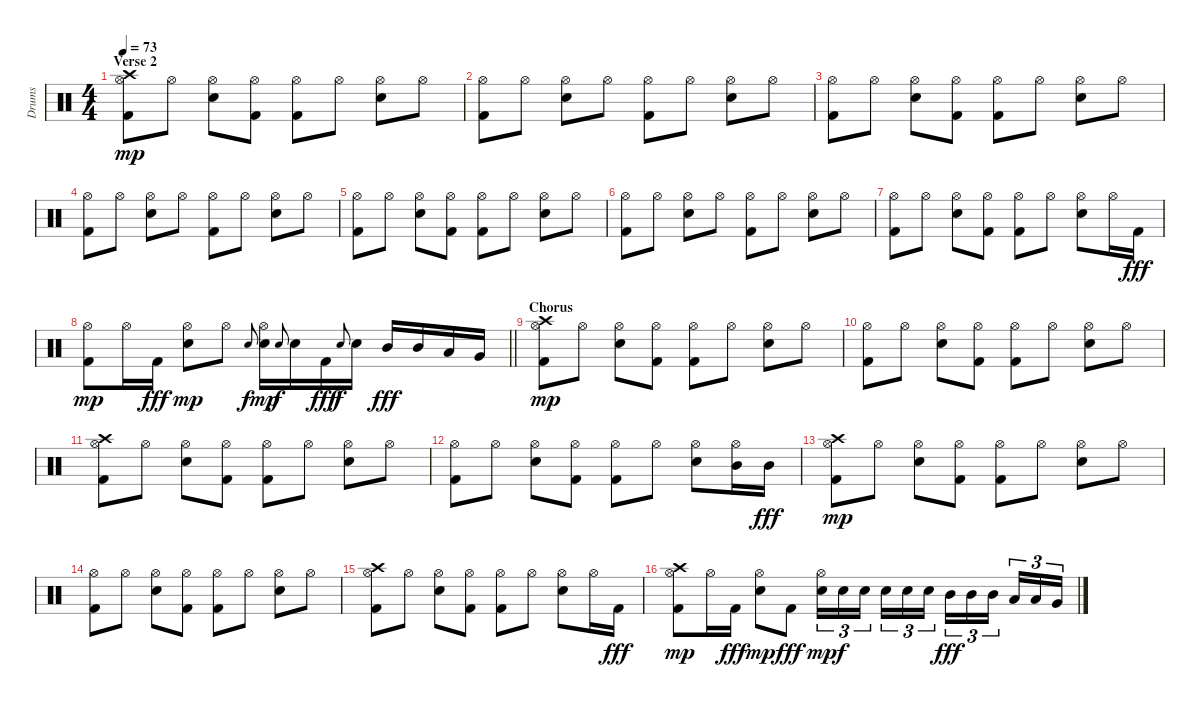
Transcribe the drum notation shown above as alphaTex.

\track ("Drums" "Drums") {instrument percussion}
\staff {score}
\articulation defaults
\ts (4 4)
\section ("" "Verse 2")
\tempo 73
\clef neutral
\ks c
("Kick (hit) 2" "Hi-Hat (open)" "Crash high (hit)").8{dy mp} "Hi-Hat (open)".8 ("Electric Snare (hit)" "Hi-Hat (open)").8 ("Kick (hit) 2" "Hi-Hat (open)").8 ("Kick (hit) 2" "Hi-Hat (open)").8 "Hi-Hat (open)".8 ("Electric Snare (hit)" "Hi-Hat (open)").8 "Hi-Hat (open)".8 |
("Kick (hit) 2" "Hi-Hat (open)").8 "Hi-Hat (open)".8 ("Electric Snare (hit)" "Hi-Hat (open)").8 "Hi-Hat (open)".8 ("Kick (hit) 2" "Hi-Hat (open)").8 "Hi-Hat (open)".8 ("Electric Snare (hit)" "Hi-Hat (open)").8 "Hi-Hat (open)".8 |
("Kick (hit) 2" "Hi-Hat (open)").8 "Hi-Hat (open)".8 ("Electric Snare (hit)" "Hi-Hat (open)").8 ("Kick (hit) 2" "Hi-Hat (open)").8 ("Kick (hit) 2" "Hi-Hat (open)").8 "Hi-Hat (open)".8 ("Electric Snare (hit)" "Hi-Hat (open)").8 "Hi-Hat (open)".8 |
("Kick (hit) 2" "Hi-Hat (open)").8 "Hi-Hat (open)".8 ("Electric Snare (hit)" "Hi-Hat (open)").8 "Hi-Hat (open)".8 ("Kick (hit) 2" "Hi-Hat (open)").8 "Hi-Hat (open)".8 ("Electric Snare (hit)" "Hi-Hat (open)").8 "Hi-Hat (open)".8 |
("Kick (hit) 2" "Hi-Hat (open)").8 "Hi-Hat (open)".8 ("Electric Snare (hit)" "Hi-Hat (open)").8 ("Kick (hit) 2" "Hi-Hat (open)").8 ("Kick (hit) 2" "Hi-Hat (open)").8 "Hi-Hat (open)".8 ("Electric Snare (hit)" "Hi-Hat (open)").8 "Hi-Hat (open)".8 |
("Kick (hit) 2" "Hi-Hat (open)").8 "Hi-Hat (open)".8 ("Electric Snare (hit)" "Hi-Hat (open)").8 "Hi-Hat (open)".8 ("Kick (hit) 2" "Hi-Hat (open)").8 "Hi-Hat (open)".8 ("Electric Snare (hit)" "Hi-Hat (open)").8 "Hi-Hat (open)".8 |
("Kick (hit) 2" "Hi-Hat (open)").8 "Hi-Hat (open)".8 ("Electric Snare (hit)" "Hi-Hat (open)").8 ("Kick (hit) 2" "Hi-Hat (open)").8 ("Kick (hit) 2" "Hi-Hat (open)").8 "Hi-Hat (open)".8 ("Electric Snare (hit)" "Hi-Hat (open)").8 "Hi-Hat (open)".16 "Kick (hit) 2".16{dy fff} |
\barLineRight lightlight
("Kick (hit) 2" "Hi-Hat (open)").8{dy mp} "Hi-Hat (open)".16 "Kick (hit) 2".16{dy fff} ("Electric Snare (hit)" "Hi-Hat (open)").8{dy mp} "Hi-Hat (open)".8 "Electric Snare (hit)".8{gr onbeat dy f} ("Electric Snare (hit)" "Hi-Hat (open)").16{dy mp} "Electric Snare (hit)".8{gr onbeat dy f} "Electric Snare (hit)".16 "Kick (hit) 2".16{dy fff} "Electric Snare (hit)".8{gr onbeat dy f} "Electric Snare (hit)".16 "Mid Tom (hit)".16{dy fff} "Mid Tom (hit)".16 "Low Tom (hit)".16 "Very Low Tom (hit)".16 |
\section ("" "Chorus")
("Kick (hit) 2" "Hi-Hat (open)" "Crash high (hit)").8{dy mp} "Hi-Hat (open)".8 ("Electric Snare (hit)" "Hi-Hat (open)").8 ("Kick (hit) 2" "Hi-Hat (open)").8 ("Kick (hit) 2" "Hi-Hat (open)").8 "Hi-Hat (open)".8 ("Electric Snare (hit)" "Hi-Hat (open)").8 "Hi-Hat (open)".8 |
("Kick (hit) 2" "Hi-Hat (open)").8 "Hi-Hat (open)".8 ("Electric Snare (hit)" "Hi-Hat (open)").8 ("Kick (hit) 2" "Hi-Hat (open)").8 ("Kick (hit) 2" "Hi-Hat (open)").8 "Hi-Hat (open)".8 ("Electric Snare (hit)" "Hi-Hat (open)").8 "Hi-Hat (open)".8 |
("Kick (hit) 2" "Hi-Hat (open)" "Crash high (hit)").8 "Hi-Hat (open)".8 ("Electric Snare (hit)" "Hi-Hat (open)").8 ("Kick (hit) 2" "Hi-Hat (open)").8 ("Kick (hit) 2" "Hi-Hat (open)").8 "Hi-Hat (open)".8 ("Electric Snare (hit)" "Hi-Hat (open)").8 "Hi-Hat (open)".8 |
("Kick (hit) 2" "Hi-Hat (open)").8 "Hi-Hat (open)".8 ("Electric Snare (hit)" "Hi-Hat (open)").8 ("Kick (hit) 2" "Hi-Hat (open)").8 ("Kick (hit) 2" "Hi-Hat (open)").8 "Hi-Hat (open)".8 ("Electric Snare (hit)" "Hi-Hat (open)").8 ("Mid Tom (hit)" "Hi-Hat (open)").16 "Mid Tom (hit)".16{dy fff} |
("Kick (hit) 2" "Hi-Hat (open)" "Crash high (hit)").8{dy mp} "Hi-Hat (open)".8 ("Electric Snare (hit)" "Hi-Hat (open)").8 ("Kick (hit) 2" "Hi-Hat (open)").8 ("Kick (hit) 2" "Hi-Hat (open)").8 "Hi-Hat (open)".8 ("Electric Snare (hit)" "Hi-Hat (open)").8 "Hi-Hat (open)".8 |
("Kick (hit) 2" "Hi-Hat (open)").8 "Hi-Hat (open)".8 ("Electric Snare (hit)" "Hi-Hat (open)").8 ("Kick (hit) 2" "Hi-Hat (open)").8 ("Kick (hit) 2" "Hi-Hat (open)").8 "Hi-Hat (open)".8 ("Electric Snare (hit)" "Hi-Hat (open)").8 "Hi-Hat (open)".8 |
("Kick (hit) 2" "Hi-Hat (open)" "Crash high (hit)").8 "Hi-Hat (open)".8 ("Electric Snare (hit)" "Hi-Hat (open)").8 ("Kick (hit) 2" "Hi-Hat (open)").8 ("Kick (hit) 2" "Hi-Hat (open)").8 "Hi-Hat (open)".8 ("Electric Snare (hit)" "Hi-Hat (open)").8 "Hi-Hat (open)".16 "Kick (hit) 2".16{dy fff} |
("Kick (hit) 2" "Crash high (hit)" "Hi-Hat (open)").8{dy mp} "Hi-Hat (open)".16 "Kick (hit) 2".16{dy fff} ("Electric Snare (hit)" "Hi-Hat (open)").8{dy mp} "Kick (hit) 2".8{dy fff} ("Electric Snare (hit)" "Hi-Hat (open)").16{tu (3 2) dy mp} "Electric Snare (hit)".16{tu (3 2) dy f} "Electric Snare (hit)".16{tu (3 2) beam splitsecondary} "Electric Snare (hit)".16{tu (3 2)} "Electric Snare (hit)".16{tu (3 2)} "Electric Snare (hit)".16{tu (3 2)} "Mid Tom (hit)".16{tu (3 2) dy fff} "Mid Tom (hit)".16{tu (3 2)} "Mid Tom (hit)".16{tu (3 2) beam splitsecondary} "Low Tom (hit)".16{tu (3 2)} "Low Tom (hit)".16{tu (3 2)} "Very Low Tom (hit)".16{tu (3 2)}
